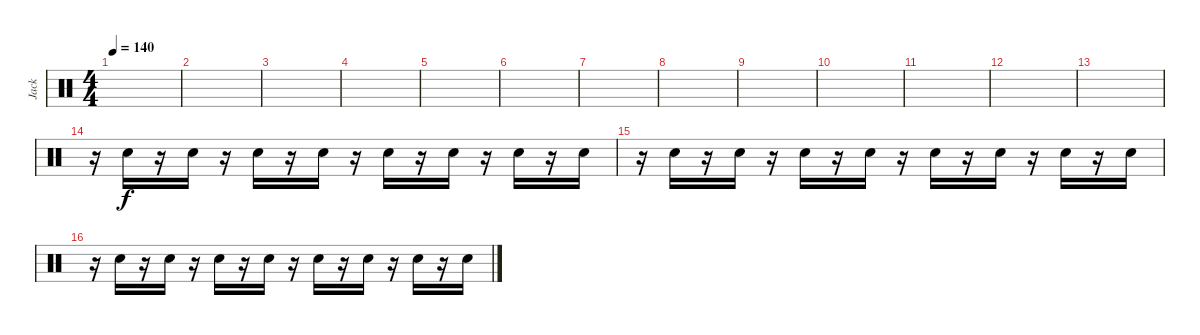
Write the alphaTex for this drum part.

\track ("Jack" "Jack") {instrument percussion}
\staff {score}
\articulation defaults
\ts (4 4)
\tempo 140
\clef neutral
\ks c
|
|
|
|
|
|
|
|
|
|
|
|
|
r.16 "Snare (hit) 2".16 r.16 "Snare (hit) 2".16 r.16 "Snare (hit) 2".16 r.16 "Snare (hit) 2".16 r.16 "Snare (hit) 2".16 r.16 "Snare (hit) 2".16 r.16 "Snare (hit) 2".16 r.16 "Snare (hit) 2".16 |
r.16 "Snare (hit) 2".16 r.16 "Snare (hit) 2".16 r.16 "Snare (hit) 2".16 r.16 "Snare (hit) 2".16 r.16 "Snare (hit) 2".16 r.16 "Snare (hit) 2".16 r.16 "Snare (hit) 2".16 r.16 "Snare (hit) 2".16 |
r.16 "Snare (hit) 2".16 r.16 "Snare (hit) 2".16 r.16 "Snare (hit) 2".16 r.16 "Snare (hit) 2".16 r.16 "Snare (hit) 2".16 r.16 "Snare (hit) 2".16 r.16 "Snare (hit) 2".16 r.16 "Snare (hit) 2".16
